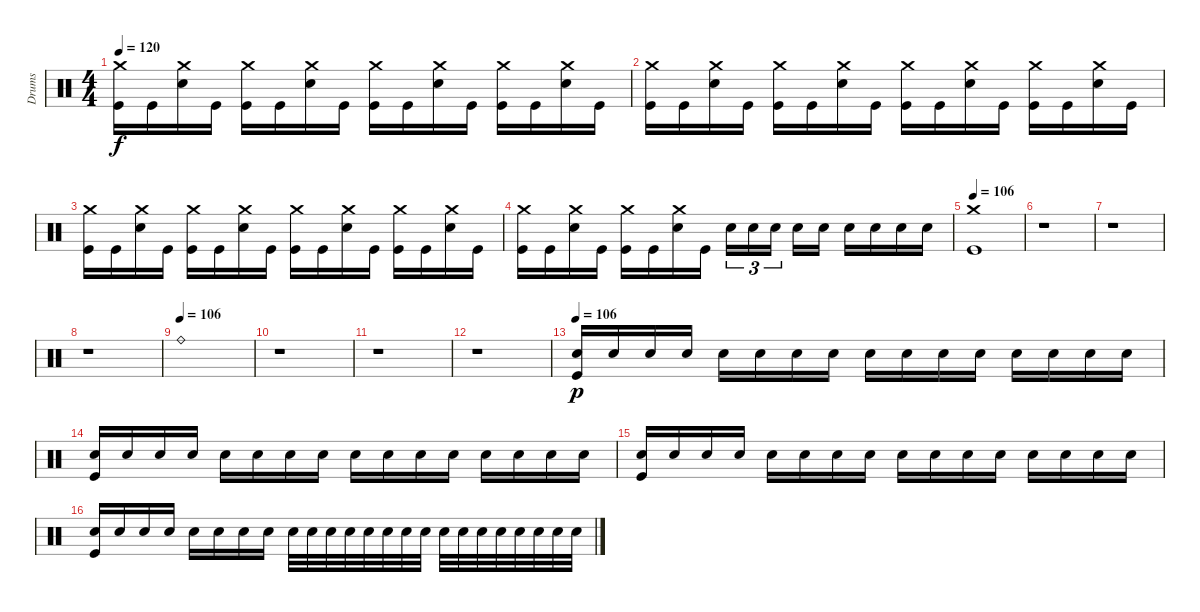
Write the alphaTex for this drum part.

\track ("Drums" "Drums") {instrument percussion}
\staff {score}
\articulation defaults
\ts (4 4)
\tempo 120
\clef neutral
\ks c
("Crash medium (hit)" "Kick (hit)").16{dy f} "Kick (hit)".16 ("Crash medium (hit)" "Electric Snare (hit)").16 "Kick (hit)".16 ("Crash medium (hit)" "Kick (hit)").16 "Kick (hit)".16 ("Crash medium (hit)" "Electric Snare (hit)").16 "Kick (hit)".16 ("Crash medium (hit)" "Kick (hit)").16 "Kick (hit)".16 ("Crash medium (hit)" "Electric Snare (hit)").16 "Kick (hit)".16 ("Crash medium (hit)" "Kick (hit)").16 "Kick (hit)".16 ("Crash medium (hit)" "Electric Snare (hit)").16 "Kick (hit)".16 |
("Crash medium (hit)" "Kick (hit)").16 "Kick (hit)".16 ("Crash medium (hit)" "Electric Snare (hit)").16 "Kick (hit)".16 ("Crash medium (hit)" "Kick (hit)").16 "Kick (hit)".16 ("Crash medium (hit)" "Electric Snare (hit)").16 "Kick (hit)".16 ("Crash medium (hit)" "Kick (hit)").16 "Kick (hit)".16 ("Crash medium (hit)" "Electric Snare (hit)").16 "Kick (hit)".16 ("Crash medium (hit)" "Kick (hit)").16 "Kick (hit)".16 ("Crash medium (hit)" "Electric Snare (hit)").16 "Kick (hit)".16 |
("Crash medium (hit)" "Kick (hit)").16 "Kick (hit)".16 ("Crash medium (hit)" "Electric Snare (hit)").16 "Kick (hit)".16 ("Crash medium (hit)" "Kick (hit)").16 "Kick (hit)".16 ("Crash medium (hit)" "Electric Snare (hit)").16 "Kick (hit)".16 ("Crash medium (hit)" "Kick (hit)").16 "Kick (hit)".16 ("Crash medium (hit)" "Electric Snare (hit)").16 "Kick (hit)".16 ("Crash medium (hit)" "Kick (hit)").16 "Kick (hit)".16 ("Crash medium (hit)" "Electric Snare (hit)").16 "Kick (hit)".16 |
("Crash medium (hit)" "Kick (hit)").16 "Kick (hit)".16 ("Crash medium (hit)" "Electric Snare (hit)").16 "Kick (hit)".16 ("Crash medium (hit)" "Kick (hit)").16 "Kick (hit)".16 ("Crash medium (hit)" "Electric Snare (hit)").16 "Kick (hit)".16 "Electric Snare (hit)".16{tu (3 2)} "Electric Snare (hit)".16{tu (3 2)} "Electric Snare (hit)".16{tu (3 2)} "Electric Snare (hit)".16 "Electric Snare (hit)".16 "Electric Snare (hit)".16 "Electric Snare (hit)".16 "Electric Snare (hit)".16 "Electric Snare (hit)".16 |
\tempo 106
("Crash medium (hit)" "Kick (hit)").1 |
r.1 |
r.1 |
r.1 |
\tempo (106)
"Ride (bell)".1 |
r.1 |
r.1 |
r.1 |
\tempo 106
("Electric Snare (hit)" "Kick (hit)").16{dy p} "Electric Snare (hit)".16 "Electric Snare (hit)".16 "Electric Snare (hit)".16 "Electric Snare (hit)".16 "Electric Snare (hit)".16 "Electric Snare (hit)".16 "Electric Snare (hit)".16 "Electric Snare (hit)".16 "Electric Snare (hit)".16 "Electric Snare (hit)".16 "Electric Snare (hit)".16 "Electric Snare (hit)".16 "Electric Snare (hit)".16 "Electric Snare (hit)".16 "Electric Snare (hit)".16 |
("Electric Snare (hit)" "Kick (hit)").16 "Electric Snare (hit)".16 "Electric Snare (hit)".16 "Electric Snare (hit)".16 "Electric Snare (hit)".16 "Electric Snare (hit)".16 "Electric Snare (hit)".16 "Electric Snare (hit)".16 "Electric Snare (hit)".16 "Electric Snare (hit)".16 "Electric Snare (hit)".16 "Electric Snare (hit)".16 "Electric Snare (hit)".16 "Electric Snare (hit)".16 "Electric Snare (hit)".16 "Electric Snare (hit)".16 |
("Electric Snare (hit)" "Kick (hit)").16 "Electric Snare (hit)".16 "Electric Snare (hit)".16 "Electric Snare (hit)".16 "Electric Snare (hit)".16 "Electric Snare (hit)".16 "Electric Snare (hit)".16 "Electric Snare (hit)".16 "Electric Snare (hit)".16 "Electric Snare (hit)".16 "Electric Snare (hit)".16 "Electric Snare (hit)".16 "Electric Snare (hit)".16 "Electric Snare (hit)".16 "Electric Snare (hit)".16 "Electric Snare (hit)".16 |
("Electric Snare (hit)" "Kick (hit)").16 "Electric Snare (hit)".16 "Electric Snare (hit)".16 "Electric Snare (hit)".16 "Electric Snare (hit)".16 "Electric Snare (hit)".16 "Electric Snare (hit)".16 "Electric Snare (hit)".16 "Electric Snare (hit)".32 "Electric Snare (hit)".32 "Electric Snare (hit)".32 "Electric Snare (hit)".32 "Electric Snare (hit)".32 "Electric Snare (hit)".32 "Electric Snare (hit)".32 "Electric Snare (hit)".32 "Electric Snare (hit)".32 "Electric Snare (hit)".32 "Electric Snare (hit)".32 "Electric Snare (hit)".32 "Electric Snare (hit)".32 "Electric Snare (hit)".32 "Electric Snare (hit)".32 "Electric Snare (hit)".32
